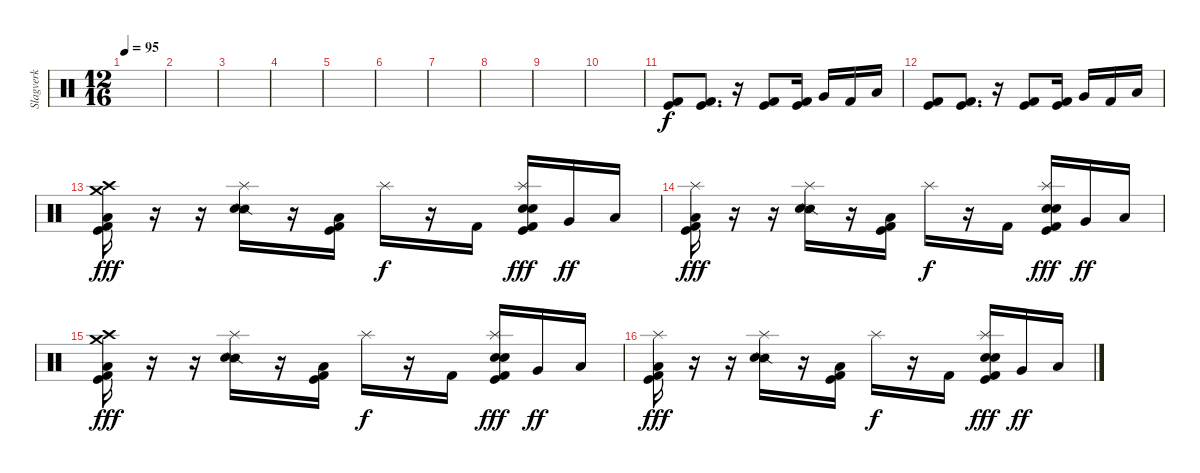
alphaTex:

\track ("Slagverk" "Slagverk") {instrument percussion}
\staff {score}
\articulation defaults
\ts (12 16)
\tempo 95
\clef neutral
\ks c
|
|
|
|
|
|
|
|
|
|
("Kick (hit)" "Kick (hit) 2").8{dy f} ("Kick (hit)" "Kick (hit) 2").8{d} r.16 ("Kick (hit) 2" "Kick (hit)").8 ("Kick (hit) 2" "Kick (hit)").16 "Very Low Tom (hit)".16 "Kick (hit) 2".16 "Low Floor Tom (hit)".16 |
("Kick (hit)" "Kick (hit) 2").8 ("Kick (hit)" "Kick (hit) 2").8{d} r.16 ("Kick (hit) 2" "Kick (hit)").8 ("Kick (hit) 2" "Kick (hit)").16 "Very Low Tom (hit)".16 "Kick (hit) 2".16 "Low Floor Tom (hit)".16 |
("Crash high (hit)" "Crash medium (hit)" "Low Floor Tom (hit)" "Kick (hit)" "Kick (hit) 2").16{dy fff} r.16 r.16 ("Splash (hit)" "Snare (side stick) 2" "Snare (hit) 2").16 r.16 ("Low Floor Tom (hit)" "Kick (hit)" "Kick (hit) 2").16 "Splash (hit)".16{dy f} r.16 "Kick (hit) 2".16 ("Splash (hit)" "Snare (hit) 2" "Electric Snare (hit)" "Kick (hit)" "Kick (hit) 2").16{dy fff} "Very Low Tom (hit)".16{dy ff} "Low Floor Tom (hit)".16 |
("Splash (hit)" "Low Floor Tom (hit)" "Kick (hit)" "Kick (hit) 2").16{dy fff} r.16 r.16 ("Splash (hit)" "Snare (side stick) 2" "Snare (hit) 2").16 r.16 ("Low Floor Tom (hit)" "Kick (hit)" "Kick (hit) 2").16 "Splash (hit)".16{dy f} r.16 "Kick (hit) 2".16 ("Splash (hit)" "Snare (hit) 2" "Electric Snare (hit)" "Kick (hit)" "Kick (hit) 2").16{dy fff} "Very Low Tom (hit)".16{dy ff} "Low Floor Tom (hit)".16 |
("Crash high (hit)" "Crash medium (hit)" "Low Floor Tom (hit)" "Kick (hit)" "Kick (hit) 2").16{dy fff} r.16 r.16 ("Splash (hit)" "Snare (side stick) 2" "Snare (hit) 2").16 r.16 ("Low Floor Tom (hit)" "Kick (hit)" "Kick (hit) 2").16 "Splash (hit)".16{dy f} r.16 "Kick (hit) 2".16 ("Splash (hit)" "Snare (hit) 2" "Electric Snare (hit)" "Kick (hit)" "Kick (hit) 2").16{dy fff} "Very Low Tom (hit)".16{dy ff} "Low Floor Tom (hit)".16 |
("Splash (hit)" "Low Floor Tom (hit)" "Kick (hit)" "Kick (hit) 2").16{dy fff} r.16 r.16 ("Splash (hit)" "Snare (side stick) 2" "Snare (hit) 2").16 r.16 ("Low Floor Tom (hit)" "Kick (hit)" "Kick (hit) 2").16 "Splash (hit)".16{dy f} r.16 "Kick (hit) 2".16 ("Splash (hit)" "Snare (hit) 2" "Electric Snare (hit)" "Kick (hit)" "Kick (hit) 2").16{dy fff} "Very Low Tom (hit)".16{dy ff} "Low Floor Tom (hit)".16
